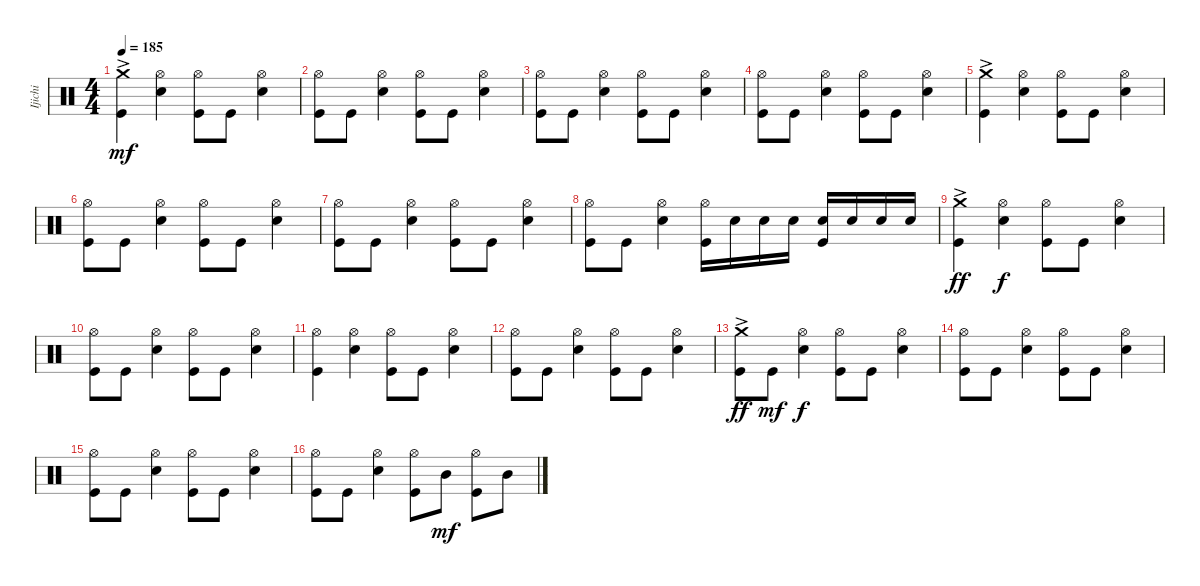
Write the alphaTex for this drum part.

\track ("Ijichi" "Ijichi") {instrument percussion}
\staff {score}
\articulation defaults
\ts (4 4)
\tempo 185
\clef neutral
\ks c
("Crash medium (hit)"{ac} "Kick (hit)").4{dy mf} ("Hi-Hat (open)" "Snare (hit) 2").4 ("Hi-Hat (open)" "Kick (hit)").8 "Kick (hit)".8 ("Hi-Hat (open)" "Snare (hit) 2").4 |
("Hi-Hat (open)" "Kick (hit)").8 "Kick (hit)".8 ("Hi-Hat (open)" "Snare (hit) 2").4 ("Hi-Hat (open)" "Kick (hit)").8 "Kick (hit)".8 ("Hi-Hat (open)" "Snare (hit) 2").4 |
("Hi-Hat (open)" "Kick (hit)").8 "Kick (hit)".8 ("Hi-Hat (open)" "Snare (hit) 2").4 ("Hi-Hat (open)" "Kick (hit)").8 "Kick (hit)".8 ("Hi-Hat (open)" "Snare (hit) 2").4 |
("Hi-Hat (open)" "Kick (hit)").8 "Kick (hit)".8 ("Hi-Hat (open)" "Snare (hit) 2").4 ("Hi-Hat (open)" "Kick (hit)").8 "Kick (hit)".8 ("Hi-Hat (open)" "Snare (hit) 2").4 |
("Crash medium (hit)"{ac} "Kick (hit)").4 ("Hi-Hat (open)" "Snare (hit) 2").4 ("Hi-Hat (open)" "Kick (hit)").8 "Kick (hit)".8 ("Hi-Hat (open)" "Snare (hit) 2").4 |
("Hi-Hat (open)" "Kick (hit)").8 "Kick (hit)".8 ("Hi-Hat (open)" "Snare (hit) 2").4 ("Hi-Hat (open)" "Kick (hit)").8 "Kick (hit)".8 ("Hi-Hat (open)" "Snare (hit) 2").4 |
("Hi-Hat (open)" "Kick (hit)").8 "Kick (hit)".8 ("Hi-Hat (open)" "Snare (hit) 2").4 ("Hi-Hat (open)" "Kick (hit)").8 "Kick (hit)".8 ("Hi-Hat (open)" "Snare (hit) 2").4 |
("Hi-Hat (open)" "Kick (hit)").8 "Kick (hit)".8 ("Hi-Hat (open)" "Snare (hit) 2").4 ("Hi-Hat (open)" "Kick (hit)").16 "Snare (hit) 2".16 "Snare (hit) 2".16 "Snare (hit) 2".16 ("Snare (hit) 2" "Kick (hit)").16 "Snare (hit) 2".16 "Snare (hit) 2".16 "Snare (hit) 2".16 |
("Crash medium (hit)"{ac} "Kick (hit)").4{dy ff} ("Hi-Hat (open)" "Snare (hit) 2").4{dy f} ("Hi-Hat (open)" "Kick (hit)").8 "Kick (hit)".8 ("Hi-Hat (open)" "Snare (hit) 2").4 |
("Hi-Hat (open)" "Kick (hit)").8 "Kick (hit)".8 ("Hi-Hat (open)" "Snare (hit) 2").4 ("Hi-Hat (open)" "Kick (hit)").8 "Kick (hit)".8 ("Hi-Hat (open)" "Snare (hit) 2").4 |
("Hi-Hat (open)" "Kick (hit)").4 ("Hi-Hat (open)" "Snare (hit) 2").4 ("Hi-Hat (open)" "Kick (hit)").8 "Kick (hit)".8 ("Hi-Hat (open)" "Snare (hit) 2").4 |
("Hi-Hat (open)" "Kick (hit)").8 "Kick (hit)".8 ("Hi-Hat (open)" "Snare (hit) 2").4 ("Hi-Hat (open)" "Kick (hit)").8 "Kick (hit)".8 ("Hi-Hat (open)" "Snare (hit) 2").4 |
("Crash medium (hit)"{ac} "Kick (hit)").8{dy ff} "Kick (hit)".8{dy mf} ("Hi-Hat (open)" "Snare (hit) 2").4{dy f} ("Hi-Hat (open)" "Kick (hit)").8 "Kick (hit)".8 ("Hi-Hat (open)" "Snare (hit) 2").4 |
("Hi-Hat (open)" "Kick (hit)").8 "Kick (hit)".8 ("Hi-Hat (open)" "Snare (hit) 2").4 ("Hi-Hat (open)" "Kick (hit)").8 "Kick (hit)".8 ("Hi-Hat (open)" "Snare (hit) 2").4 |
("Hi-Hat (open)" "Kick (hit)").8 "Kick (hit)".8 ("Hi-Hat (open)" "Snare (hit) 2").4 ("Hi-Hat (open)" "Kick (hit)").8 "Kick (hit)".8 ("Hi-Hat (open)" "Snare (hit) 2").4 |
("Hi-Hat (open)" "Kick (hit)").8 "Kick (hit)".8 ("Hi-Hat (open)" "Snare (hit) 2").4 ("Hi-Hat (open)" "Kick (hit)").8 "Mid Tom (hit)".8{dy mf} ("Hi-Hat (open)" "Kick (hit)").8 "Mid Tom (hit)".8
